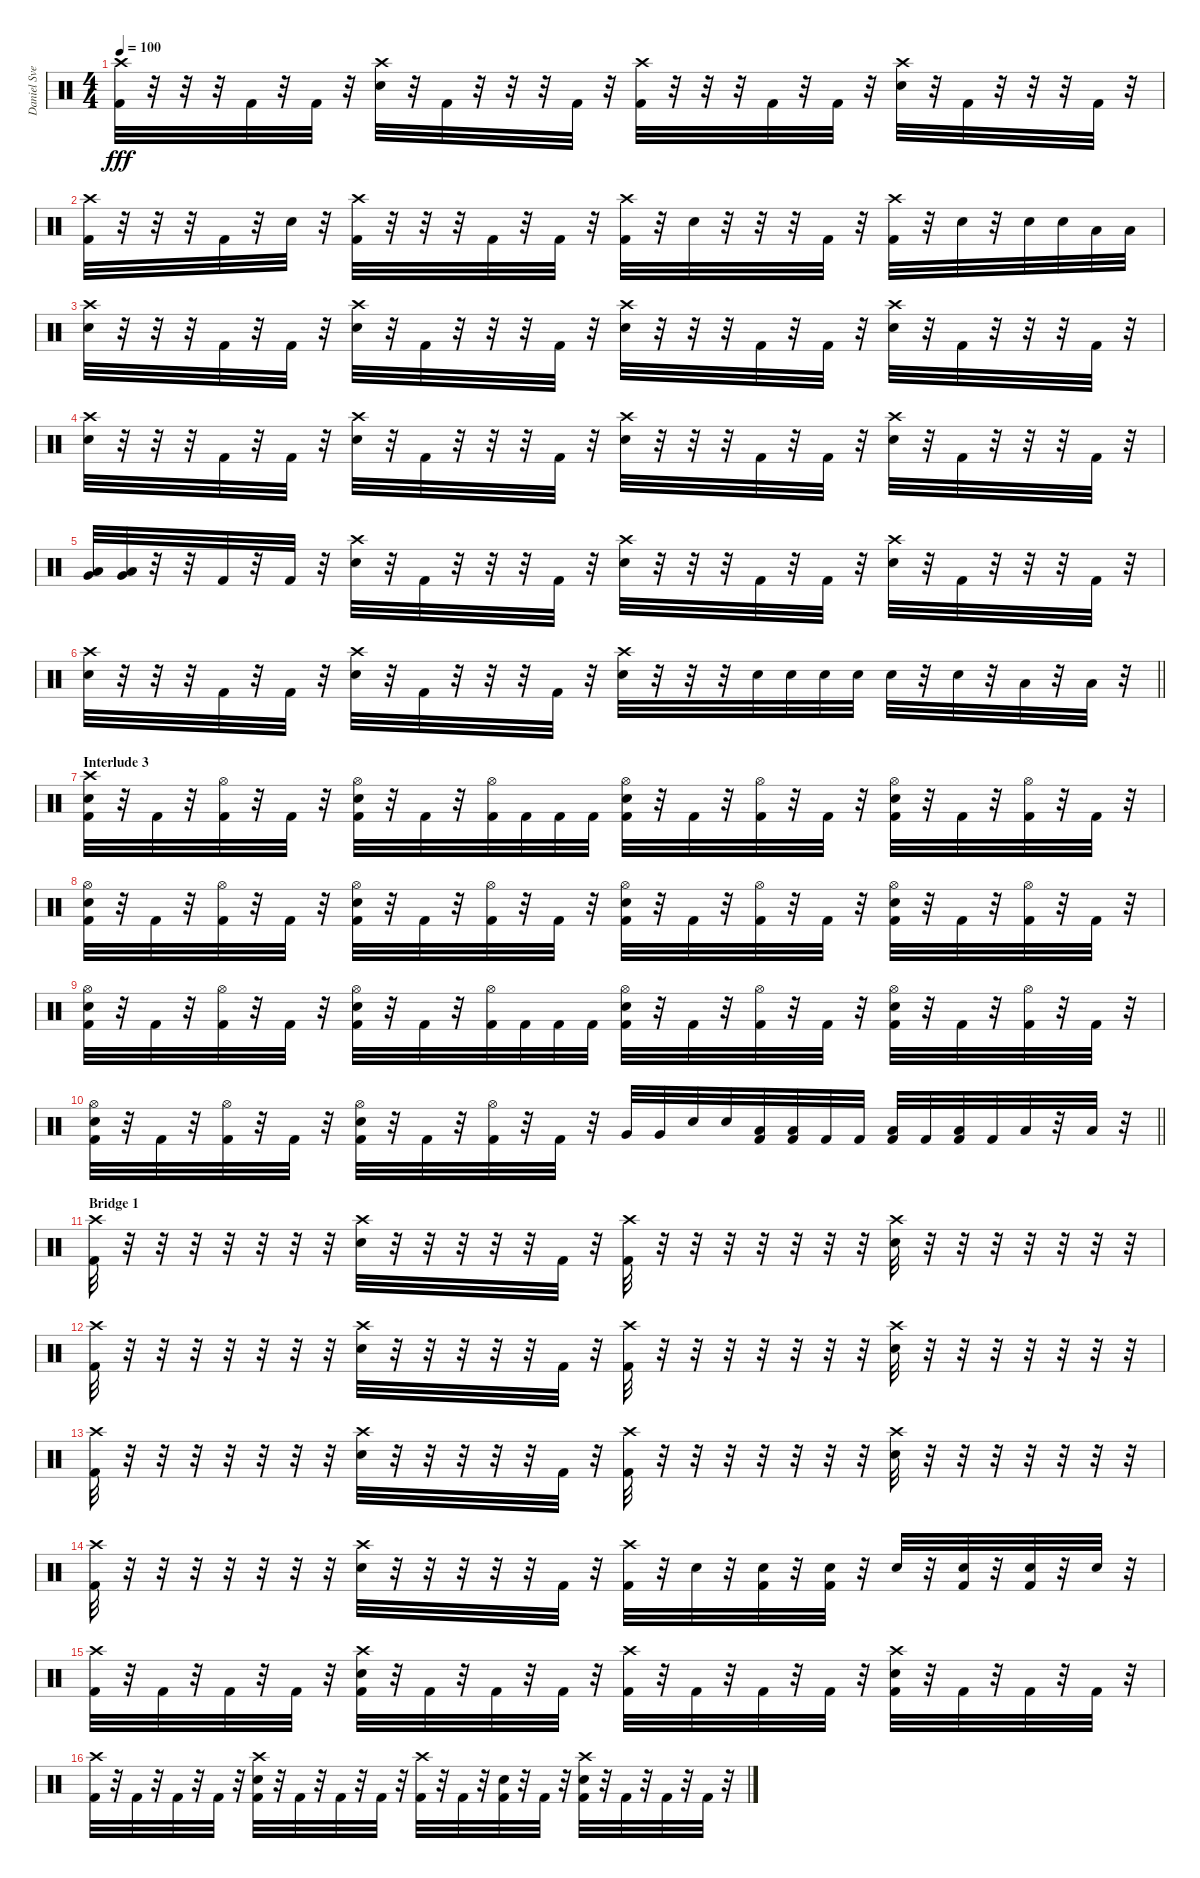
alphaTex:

\track ("Daniel Svensson" "Daniel Sve") {instrument percussion}
\staff {score}
\articulation defaults
\ts (4 4)
\tempo 100
\clef neutral
\ks c
("Crash high (hit)" "Kick (hit) 2").32{dy fff} r.32 r.32 r.32 "Kick (hit) 2".32 r.32 "Kick (hit) 2".32 r.32 ("Crash high (hit)" "Electric Snare (hit)").32 r.32 "Kick (hit) 2".32 r.32 r.32 r.32 "Kick (hit) 2".32 r.32 ("Crash high (hit)" "Kick (hit) 2").32 r.32 r.32 r.32 "Kick (hit) 2".32 r.32 "Kick (hit) 2".32 r.32 ("Crash high (hit)" "Electric Snare (hit)").32 r.32 "Kick (hit) 2".32 r.32 r.32 r.32 "Kick (hit) 2".32 r.32 |
("Crash high (hit)" "Kick (hit) 2").32 r.32 r.32 r.32 "Kick (hit) 2".32 r.32 "Electric Snare (hit)".32 r.32 ("Crash high (hit)" "Kick (hit) 2").32 r.32 r.32 r.32 "Kick (hit) 2".32 r.32 "Kick (hit) 2".32 r.32 ("Crash high (hit)" "Kick (hit) 2").32 r.32 "Electric Snare (hit)".32 r.32 r.32 r.32 "Kick (hit) 2".32 r.32 ("Crash high (hit)" "Kick (hit) 2").32 r.32 "Electric Snare (hit)".32 r.32 "Electric Snare (hit)".32 "Electric Snare (hit)".32 "Low Tom (hit)".32 "Low Tom (hit)".32 |
("Crash high (hit)" "Electric Snare (hit)").32 r.32 r.32 r.32 "Kick (hit) 2".32 r.32 "Kick (hit) 2".32 r.32 ("Crash high (hit)" "Electric Snare (hit)").32 r.32 "Kick (hit) 2".32 r.32 r.32 r.32 "Kick (hit) 2".32 r.32 ("Crash high (hit)" "Electric Snare (hit)").32 r.32 r.32 r.32 "Kick (hit) 2".32 r.32 "Kick (hit) 2".32 r.32 ("Crash high (hit)" "Electric Snare (hit)").32 r.32 "Kick (hit) 2".32 r.32 r.32 r.32 "Kick (hit) 2".32 r.32 |
("Crash high (hit)" "Electric Snare (hit)").32 r.32 r.32 r.32 "Kick (hit) 2".32 r.32 "Kick (hit) 2".32 r.32 ("Crash high (hit)" "Electric Snare (hit)").32 r.32 "Kick (hit) 2".32 r.32 r.32 r.32 "Kick (hit) 2".32 r.32 ("Crash high (hit)" "Electric Snare (hit)").32 r.32 r.32 r.32 "Kick (hit) 2".32 r.32 "Kick (hit) 2".32 r.32 ("Crash high (hit)" "Electric Snare (hit)").32 r.32 "Kick (hit) 2".32 r.32 r.32 r.32 "Kick (hit) 2".32 r.32 |
("Very Low Tom (hit)" "Low Floor Tom (hit)").32 ("Very Low Tom (hit)" "Low Floor Tom (hit)").32 r.32 r.32 "Kick (hit) 2".32 r.32 "Kick (hit) 2".32 r.32 ("Crash high (hit)" "Electric Snare (hit)").32 r.32 "Kick (hit) 2".32 r.32 r.32 r.32 "Kick (hit) 2".32 r.32 ("Crash high (hit)" "Electric Snare (hit)").32 r.32 r.32 r.32 "Kick (hit) 2".32 r.32 "Kick (hit) 2".32 r.32 ("Crash high (hit)" "Electric Snare (hit)").32 r.32 "Kick (hit) 2".32 r.32 r.32 r.32 "Kick (hit) 2".32 r.32 |
\barLineRight lightlight
("Crash high (hit)" "Electric Snare (hit)").32 r.32 r.32 r.32 "Kick (hit) 2".32 r.32 "Kick (hit) 2".32 r.32 ("Crash high (hit)" "Electric Snare (hit)").32 r.32 "Kick (hit) 2".32 r.32 r.32 r.32 "Kick (hit) 2".32 r.32 ("Crash high (hit)" "Electric Snare (hit)").32 r.32 r.32 r.32 "Electric Snare (hit)".32 "Electric Snare (hit)".32 "Electric Snare (hit)".32 "Electric Snare (hit)".32 "Electric Snare (hit)".32 r.32 "Electric Snare (hit)".32 r.32 "Low Tom (hit)".32 r.32 "Low Tom (hit)".32 r.32 |
\section ("" "Interlude 3")
("Crash high (hit)" "Electric Snare (hit)" "Kick (hit) 2").32 r.32 "Kick (hit) 2".32 r.32 ("Hi-Hat (open)" "Kick (hit) 2").32 r.32 "Kick (hit) 2".32 r.32 ("Hi-Hat (open)" "Electric Snare (hit)" "Kick (hit) 2").32 r.32 "Kick (hit) 2".32 r.32 ("Hi-Hat (open)" "Kick (hit) 2").32 "Kick (hit) 2".32 "Kick (hit) 2".32 "Kick (hit) 2".32 ("Hi-Hat (open)" "Electric Snare (hit)" "Kick (hit) 2").32 r.32 "Kick (hit) 2".32 r.32 ("Hi-Hat (open)" "Kick (hit) 2").32 r.32 "Kick (hit) 2".32 r.32 ("Hi-Hat (open)" "Electric Snare (hit)" "Kick (hit) 2").32 r.32 "Kick (hit) 2".32 r.32 ("Hi-Hat (open)" "Kick (hit) 2").32 r.32 "Kick (hit) 2".32 r.32 |
("Hi-Hat (open)" "Electric Snare (hit)" "Kick (hit) 2").32 r.32 "Kick (hit) 2".32 r.32 ("Hi-Hat (open)" "Kick (hit) 2").32 r.32 "Kick (hit) 2".32 r.32 ("Hi-Hat (open)" "Electric Snare (hit)" "Kick (hit) 2").32 r.32 "Kick (hit) 2".32 r.32 ("Hi-Hat (open)" "Kick (hit) 2").32 r.32 "Kick (hit) 2".32 r.32 ("Hi-Hat (open)" "Electric Snare (hit)" "Kick (hit) 2").32 r.32 "Kick (hit) 2".32 r.32 ("Hi-Hat (open)" "Kick (hit) 2").32 r.32 "Kick (hit) 2".32 r.32 ("Hi-Hat (open)" "Electric Snare (hit)" "Kick (hit) 2").32 r.32 "Kick (hit) 2".32 r.32 ("Hi-Hat (open)" "Kick (hit) 2").32 r.32 "Kick (hit) 2".32 r.32 |
("Hi-Hat (open)" "Electric Snare (hit)" "Kick (hit) 2").32 r.32 "Kick (hit) 2".32 r.32 ("Hi-Hat (open)" "Kick (hit) 2").32 r.32 "Kick (hit) 2".32 r.32 ("Hi-Hat (open)" "Electric Snare (hit)" "Kick (hit) 2").32 r.32 "Kick (hit) 2".32 r.32 ("Hi-Hat (open)" "Kick (hit) 2").32 "Kick (hit) 2".32 "Kick (hit) 2".32 "Kick (hit) 2".32 ("Hi-Hat (open)" "Electric Snare (hit)" "Kick (hit) 2").32 r.32 "Kick (hit) 2".32 r.32 ("Hi-Hat (open)" "Kick (hit) 2").32 r.32 "Kick (hit) 2".32 r.32 ("Hi-Hat (open)" "Electric Snare (hit)" "Kick (hit) 2").32 r.32 "Kick (hit) 2".32 r.32 ("Hi-Hat (open)" "Kick (hit) 2").32 r.32 "Kick (hit) 2".32 r.32 |
\barLineRight lightlight
("Hi-Hat (open)" "Electric Snare (hit)" "Kick (hit) 2").32 r.32 "Kick (hit) 2".32 r.32 ("Hi-Hat (open)" "Kick (hit) 2").32 r.32 "Kick (hit) 2".32 r.32 ("Hi-Hat (open)" "Electric Snare (hit)" "Kick (hit) 2").32 r.32 "Kick (hit) 2".32 r.32 ("Hi-Hat (open)" "Kick (hit) 2").32 r.32 "Kick (hit) 2".32 r.32 "Very Low Tom (hit)".32 "Very Low Tom (hit)".32 "Electric Snare (hit)".32 "Electric Snare (hit)".32 ("Low Tom (hit)" "Kick (hit) 2").32 ("Low Tom (hit)" "Kick (hit) 2").32 "Kick (hit) 2".32 "Kick (hit) 2".32 ("Low Tom (hit)" "Kick (hit) 2").32 "Kick (hit) 2".32 ("Low Tom (hit)" "Kick (hit) 2").32 "Kick (hit) 2".32 "Low Tom (hit)".32 r.32 "Low Tom (hit)".32 r.32 |
\section ("" "Bridge 1")
("Crash high (hit)" "Kick (hit) 2").32 r.32 r.32 r.32 r.32 r.32 r.32 r.32 ("Crash high (hit)" "Electric Snare (hit)").32 r.32 r.32 r.32 r.32 r.32 "Kick (hit) 2".32 r.32 ("Crash high (hit)" "Kick (hit) 2").32 r.32 r.32 r.32 r.32 r.32 r.32 r.32 ("Crash high (hit)" "Electric Snare (hit)").32 r.32 r.32 r.32 r.32 r.32 r.32 r.32 |
("Crash high (hit)" "Kick (hit) 2").32 r.32 r.32 r.32 r.32 r.32 r.32 r.32 ("Crash high (hit)" "Electric Snare (hit)").32 r.32 r.32 r.32 r.32 r.32 "Kick (hit) 2".32 r.32 ("Crash high (hit)" "Kick (hit) 2").32 r.32 r.32 r.32 r.32 r.32 r.32 r.32 ("Crash high (hit)" "Electric Snare (hit)").32 r.32 r.32 r.32 r.32 r.32 r.32 r.32 |
("Crash high (hit)" "Kick (hit) 2").32 r.32 r.32 r.32 r.32 r.32 r.32 r.32 ("Crash high (hit)" "Electric Snare (hit)").32 r.32 r.32 r.32 r.32 r.32 "Kick (hit) 2".32 r.32 ("Crash high (hit)" "Kick (hit) 2").32 r.32 r.32 r.32 r.32 r.32 r.32 r.32 ("Crash high (hit)" "Electric Snare (hit)").32 r.32 r.32 r.32 r.32 r.32 r.32 r.32 |
("Crash high (hit)" "Kick (hit) 2").32 r.32 r.32 r.32 r.32 r.32 r.32 r.32 ("Crash high (hit)" "Electric Snare (hit)").32 r.32 r.32 r.32 r.32 r.32 "Kick (hit) 2".32 r.32 ("Crash high (hit)" "Kick (hit) 2").32 r.32 "Electric Snare (hit)".32 r.32 ("Electric Snare (hit)" "Kick (hit) 2").32 r.32 ("Electric Snare (hit)" "Kick (hit) 2").32 r.32 "Electric Snare (hit)".32 r.32 ("Electric Snare (hit)" "Kick (hit) 2").32 r.32 ("Electric Snare (hit)" "Kick (hit) 2").32 r.32 "Electric Snare (hit)".32 r.32 |
("Crash high (hit)" "Kick (hit) 2").32 r.32 "Kick (hit) 2".32 r.32 "Kick (hit) 2".32 r.32 "Kick (hit) 2".32 r.32 ("Crash high (hit)" "Electric Snare (hit)" "Kick (hit) 2").32 r.32 "Kick (hit) 2".32 r.32 "Kick (hit) 2".32 r.32 "Kick (hit) 2".32 r.32 ("Crash high (hit)" "Kick (hit) 2").32 r.32 "Kick (hit) 2".32 r.32 "Kick (hit) 2".32 r.32 "Kick (hit) 2".32 r.32 ("Crash high (hit)" "Electric Snare (hit)" "Kick (hit) 2").32 r.32 "Kick (hit) 2".32 r.32 "Kick (hit) 2".32 r.32 "Kick (hit) 2".32 r.32 |
("Crash high (hit)" "Kick (hit) 2").32 r.32 "Kick (hit) 2".32 r.32 "Kick (hit) 2".32 r.32 "Kick (hit) 2".32 r.32 ("Crash high (hit)" "Electric Snare (hit)" "Kick (hit) 2").32 r.32 "Kick (hit) 2".32 r.32 "Kick (hit) 2".32 r.32 "Kick (hit) 2".32 r.32 ("Crash high (hit)" "Kick (hit) 2").32 r.32 "Kick (hit) 2".32 r.32 ("Electric Snare (hit)" "Kick (hit) 2").32 r.32 "Kick (hit) 2".32 r.32 ("Crash high (hit)" "Electric Snare (hit)" "Kick (hit) 2").32 r.32 "Kick (hit) 2".32 r.32 "Kick (hit) 2".32 r.32 "Kick (hit) 2".32 r.32
